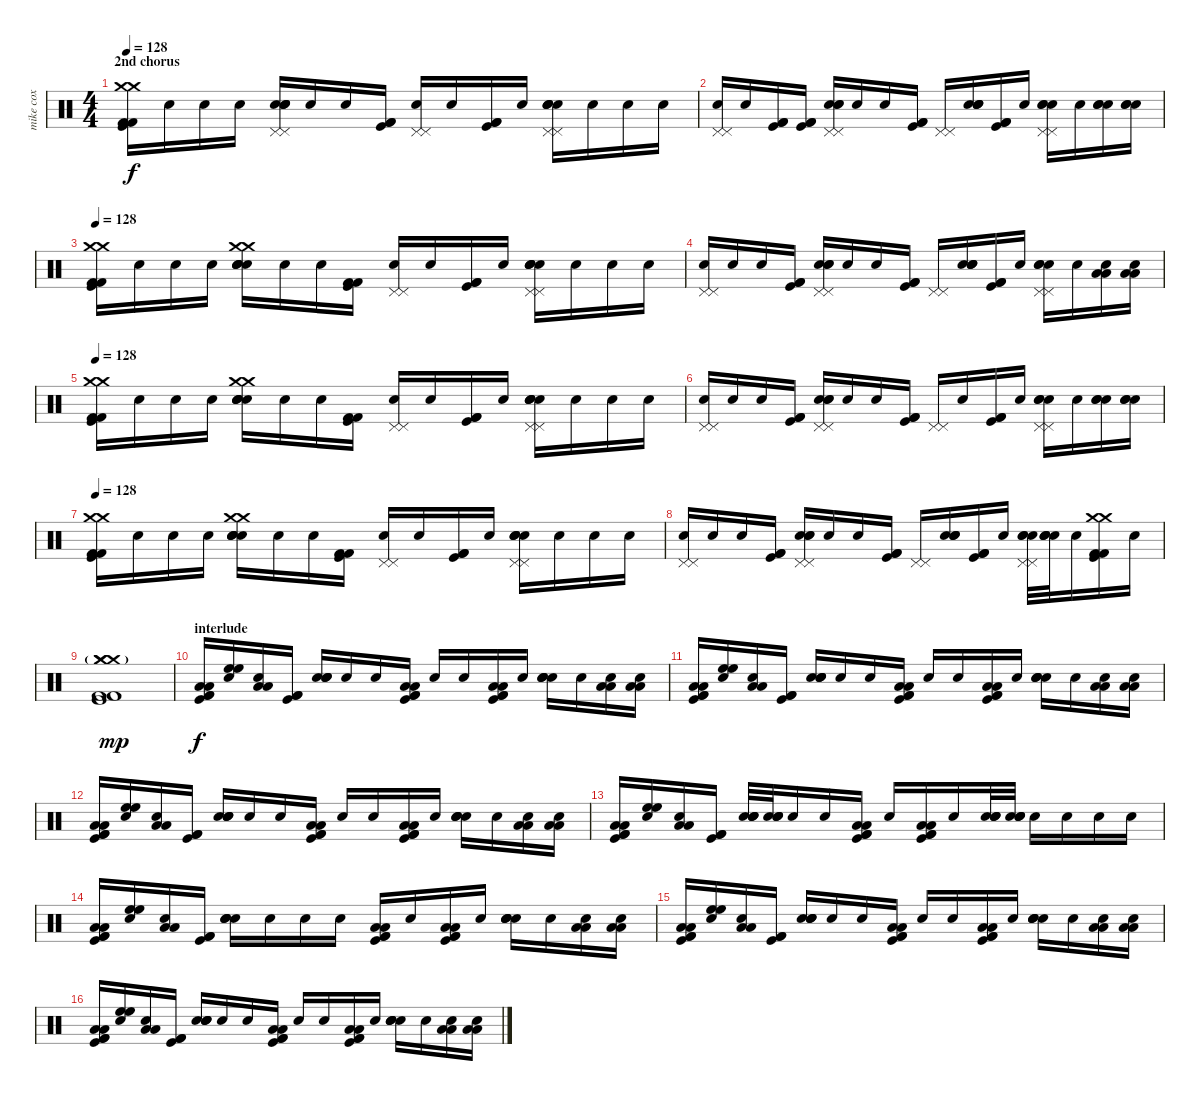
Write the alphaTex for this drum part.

\track ("mike cox" "mike cox") {instrument percussion}
\staff {score}
\articulation defaults
\ts (4 4)
\section ("" "2nd chorus")
\tempo 129
\tempo 128
\clef neutral
\ks c
("Crash medium (hit)" "Crash medium (hit)" "Kick (hit)" "Kick (hit) 2" "Kick (hit) 2").16{dy f} "Snare (hit)".16 "Snare (hit)".16 "Snare (hit)".16 ("Pedal Hi-Hat (hit)" "Pedal Hi-Hat (hit)" "Electric Snare (hit)" "Electric Snare (hit)" "Snare (hit) 2" "Snare (hit)").16 "Snare (hit)".16 "Snare (hit)".16 ("Kick (hit)" "Kick (hit) 2" "Kick (hit) 2").16 ("Pedal Hi-Hat (hit)" "Pedal Hi-Hat (hit)" "Snare (hit)").16 "Snare (hit)".16 ("Kick (hit)" "Kick (hit) 2" "Kick (hit) 2").16 "Snare (hit)".16 ("Pedal Hi-Hat (hit)" "Pedal Hi-Hat (hit)" "Electric Snare (hit)" "Electric Snare (hit)" "Snare (hit) 2" "Snare (hit)").16 "Snare (hit)".16 "Snare (hit)".16 "Snare (hit)".16 |
("Pedal Hi-Hat (hit)" "Pedal Hi-Hat (hit)" "Snare (hit)").16 "Snare (hit)".16 ("Kick (hit)" "Kick (hit) 2" "Kick (hit) 2").16 ("Kick (hit)" "Kick (hit) 2" "Kick (hit) 2").16 ("Pedal Hi-Hat (hit)" "Pedal Hi-Hat (hit)" "Electric Snare (hit)" "Electric Snare (hit)" "Snare (hit) 2").16 "Snare (hit)".16 "Snare (hit)".16 ("Kick (hit)" "Kick (hit) 2" "Kick (hit) 2").16 ("Pedal Hi-Hat (hit)" "Pedal Hi-Hat (hit)").16 ("Electric Snare (hit)" "Electric Snare (hit)" "Snare (hit) 2" "Snare (hit)").16 ("Kick (hit)" "Kick (hit) 2" "Kick (hit) 2").16 "Snare (hit)".16 ("Pedal Hi-Hat (hit)" "Pedal Hi-Hat (hit)" "Electric Snare (hit)" "Electric Snare (hit)" "Snare (hit) 2").16 "Snare (hit)".16 ("Electric Snare (hit)" "Electric Snare (hit)" "Snare (hit) 2").16 ("Electric Snare (hit)" "Electric Snare (hit)" "Snare (hit) 2").16 |
\tempo 128
("Crash medium (hit)" "Crash medium (hit)" "Kick (hit)" "Kick (hit) 2" "Kick (hit) 2").16 "Snare (hit)".16 "Snare (hit)".16 "Snare (hit)".16 ("Crash medium (hit)" "Crash medium (hit)" "Electric Snare (hit)" "Electric Snare (hit)" "Snare (hit) 2" "Snare (hit)").16 "Snare (hit)".16 "Snare (hit)".16 ("Kick (hit)" "Kick (hit) 2" "Kick (hit) 2").16 ("Pedal Hi-Hat (hit)" "Pedal Hi-Hat (hit)" "Snare (hit)").16 "Snare (hit)".16 ("Kick (hit)" "Kick (hit) 2" "Kick (hit) 2").16 "Snare (hit)".16 ("Pedal Hi-Hat (hit)" "Pedal Hi-Hat (hit)" "Electric Snare (hit)" "Electric Snare (hit)" "Snare (hit) 2" "Snare (hit)").16 "Snare (hit)".16 "Snare (hit)".16 "Snare (hit)".16 |
("Pedal Hi-Hat (hit)" "Pedal Hi-Hat (hit)" "Snare (hit)").16 "Snare (hit)".16 "Snare (hit)".16 ("Kick (hit)" "Kick (hit) 2" "Kick (hit) 2").16 ("Pedal Hi-Hat (hit)" "Pedal Hi-Hat (hit)" "Electric Snare (hit)" "Electric Snare (hit)" "Snare (hit) 2").16 "Snare (hit)".16 "Snare (hit)".16 ("Kick (hit)" "Kick (hit) 2" "Kick (hit) 2").16 ("Pedal Hi-Hat (hit)" "Pedal Hi-Hat (hit)").16 ("Electric Snare (hit)" "Electric Snare (hit)" "Snare (hit) 2" "Snare (hit)").16 ("Kick (hit)" "Kick (hit) 2" "Kick (hit) 2").16 "Snare (hit)".16 ("Pedal Hi-Hat (hit)" "Pedal Hi-Hat (hit)" "Electric Snare (hit)" "Electric Snare (hit)" "Snare (hit) 2").16 "Snare (hit)".16 ("Low Tom (hit)" "Low Tom (hit)" "Snare (hit)").16 ("Low Tom (hit)" "Low Tom (hit)" "Snare (hit)").16 |
\tempo 128
("Crash medium (hit)" "Crash medium (hit)" "Kick (hit)" "Kick (hit) 2" "Kick (hit) 2").16 "Snare (hit)".16 "Snare (hit)".16 "Snare (hit)".16 ("Crash medium (hit)" "Crash medium (hit)" "Electric Snare (hit)" "Electric Snare (hit)" "Snare (hit) 2" "Snare (hit)").16 "Snare (hit)".16 "Snare (hit)".16 ("Kick (hit)" "Kick (hit) 2" "Kick (hit) 2").16 ("Pedal Hi-Hat (hit)" "Pedal Hi-Hat (hit)" "Snare (hit)").16 "Snare (hit)".16 ("Kick (hit)" "Kick (hit) 2" "Kick (hit) 2").16 "Snare (hit)".16 ("Pedal Hi-Hat (hit)" "Pedal Hi-Hat (hit)" "Electric Snare (hit)" "Electric Snare (hit)" "Snare (hit) 2" "Snare (hit)").16 "Snare (hit)".16 "Snare (hit)".16 "Snare (hit)".16 |
("Pedal Hi-Hat (hit)" "Pedal Hi-Hat (hit)" "Snare (hit)").16 "Snare (hit)".16 "Snare (hit)".16 ("Kick (hit)" "Kick (hit) 2" "Kick (hit) 2").16 ("Pedal Hi-Hat (hit)" "Pedal Hi-Hat (hit)" "Electric Snare (hit)" "Electric Snare (hit)" "Snare (hit) 2").16 "Snare (hit)".16 "Snare (hit)".16 ("Kick (hit)" "Kick (hit) 2" "Kick (hit) 2").16 ("Pedal Hi-Hat (hit)" "Pedal Hi-Hat (hit)").16 "Snare (hit)".16 ("Kick (hit)" "Kick (hit) 2" "Kick (hit) 2").16 "Snare (hit)".16 ("Pedal Hi-Hat (hit)" "Pedal Hi-Hat (hit)" "Electric Snare (hit)" "Electric Snare (hit)" "Snare (hit) 2").16 "Snare (hit)".16 ("Electric Snare (hit)" "Electric Snare (hit)" "Snare (hit) 2").16 ("Electric Snare (hit)" "Electric Snare (hit)" "Snare (hit) 2").16 |
\tempo 128
("Crash medium (hit)" "Crash medium (hit)" "Kick (hit)" "Kick (hit) 2" "Kick (hit) 2").16 "Snare (hit)".16 "Snare (hit)".16 "Snare (hit)".16 ("Crash medium (hit)" "Crash medium (hit)" "Electric Snare (hit)" "Electric Snare (hit)" "Snare (hit) 2" "Snare (hit)").16 "Snare (hit)".16 "Snare (hit)".16 ("Kick (hit)" "Kick (hit) 2" "Kick (hit) 2").16 ("Pedal Hi-Hat (hit)" "Pedal Hi-Hat (hit)" "Snare (hit)").16 "Snare (hit)".16 ("Kick (hit)" "Kick (hit) 2" "Kick (hit) 2").16 "Snare (hit)".16 ("Pedal Hi-Hat (hit)" "Pedal Hi-Hat (hit)" "Electric Snare (hit)" "Electric Snare (hit)" "Snare (hit) 2" "Snare (hit)").16 "Snare (hit)".16 "Snare (hit)".16 "Snare (hit)".16 |
("Pedal Hi-Hat (hit)" "Pedal Hi-Hat (hit)" "Snare (hit)").16 "Snare (hit)".16 "Snare (hit)".16 ("Kick (hit)" "Kick (hit) 2" "Kick (hit) 2").16 ("Pedal Hi-Hat (hit)" "Pedal Hi-Hat (hit)" "Electric Snare (hit)" "Electric Snare (hit)" "Snare (hit) 2").16 "Snare (hit)".16 "Snare (hit)".16 ("Kick (hit)" "Kick (hit) 2" "Kick (hit) 2").16 ("Pedal Hi-Hat (hit)" "Pedal Hi-Hat (hit)").16 ("Electric Snare (hit)" "Electric Snare (hit)" "Snare (hit) 2" "Snare (hit)").16 ("Kick (hit)" "Kick (hit) 2" "Kick (hit) 2").16 "Snare (hit)".16 ("Pedal Hi-Hat (hit)" "Pedal Hi-Hat (hit)" "Electric Snare (hit)" "Electric Snare (hit)" "Snare (hit) 2").32 ("Electric Snare (hit)" "Electric Snare (hit)" "Snare (hit) 2" "Snare (hit)").32 "Snare (hit)".16 ("Crash medium (hit)" "Crash medium (hit)" "Kick (hit)" "Kick (hit) 2" "Kick (hit) 2").16 "Snare (hit)".16 |
("Crash medium (hit)" "Crash medium (hit)" "Crash medium (hit)"{g} "Kick (hit)" "Kick (hit) 2" "Kick (hit) 2").1{dy mp} |
\section ("" "interlude")
("Low Floor Tom (hit)" "Low Floor Tom (hit)" "Kick (hit)" "Kick (hit) 2" "Kick (hit) 2").16{dy f} ("High Floor Tom (hit)" "High Floor Tom (hit)" "Snare (hit)").16 ("Low Floor Tom (hit)" "Low Floor Tom (hit)" "Snare (hit)").16 ("Kick (hit)" "Kick (hit) 2" "Kick (hit) 2").16 ("Snare (hit) 2" "Electric Snare (hit)" "Electric Snare (hit)" "Snare (hit)").16 "Snare (hit)".16 "Snare (hit)".16 ("Low Floor Tom (hit)" "Low Floor Tom (hit)" "Kick (hit)" "Kick (hit) 2" "Kick (hit) 2").16 "Snare (hit)".16 "Snare (hit)".16 ("Low Floor Tom (hit)" "Low Floor Tom (hit)" "Kick (hit)" "Kick (hit) 2" "Kick (hit) 2").16 "Snare (hit)".16 ("Electric Snare (hit)" "Electric Snare (hit)" "Snare (hit) 2" "Snare (hit)").16 "Snare (hit)".16 ("Low Floor Tom (hit)" "Low Floor Tom (hit)" "Snare (hit)").16 ("Low Floor Tom (hit)" "Low Floor Tom (hit)" "Snare (hit)").16 |
("Low Floor Tom (hit)" "Low Floor Tom (hit)" "Kick (hit)" "Kick (hit) 2" "Kick (hit) 2").16 ("High Floor Tom (hit)" "High Floor Tom (hit)" "Snare (hit)").16 ("Low Floor Tom (hit)" "Low Floor Tom (hit)" "Snare (hit)").16 ("Kick (hit)" "Kick (hit) 2" "Kick (hit) 2").16 ("Snare (hit) 2" "Electric Snare (hit)" "Electric Snare (hit)" "Snare (hit)").16 "Snare (hit)".16 "Snare (hit)".16 ("Low Floor Tom (hit)" "Low Floor Tom (hit)" "Kick (hit)" "Kick (hit) 2" "Kick (hit) 2").16 "Snare (hit)".16 "Snare (hit)".16 ("Low Floor Tom (hit)" "Low Floor Tom (hit)" "Kick (hit)" "Kick (hit) 2" "Kick (hit) 2").16 "Snare (hit)".16 ("Electric Snare (hit)" "Electric Snare (hit)" "Snare (hit) 2" "Snare (hit)").16 "Snare (hit)".16 ("Low Floor Tom (hit)" "Low Floor Tom (hit)" "Snare (hit)").16 ("Low Floor Tom (hit)" "Low Floor Tom (hit)" "Snare (hit)").16 |
("Low Floor Tom (hit)" "Low Floor Tom (hit)" "Kick (hit)" "Kick (hit) 2" "Kick (hit) 2").16 ("High Floor Tom (hit)" "High Floor Tom (hit)" "Snare (hit)").16 ("Low Floor Tom (hit)" "Low Floor Tom (hit)" "Snare (hit)").16 ("Kick (hit)" "Kick (hit) 2" "Kick (hit) 2").16 ("Snare (hit) 2" "Electric Snare (hit)" "Electric Snare (hit)" "Snare (hit)").16 "Snare (hit)".16 "Snare (hit)".16 ("Low Floor Tom (hit)" "Low Floor Tom (hit)" "Kick (hit)" "Kick (hit) 2" "Kick (hit) 2").16 "Snare (hit)".16 "Snare (hit)".16 ("Low Floor Tom (hit)" "Low Floor Tom (hit)" "Kick (hit)" "Kick (hit) 2" "Kick (hit) 2").16 "Snare (hit)".16 ("Electric Snare (hit)" "Electric Snare (hit)" "Snare (hit) 2" "Snare (hit)").16 "Snare (hit)".16 ("Low Floor Tom (hit)" "Low Floor Tom (hit)" "Snare (hit)").16 ("Low Floor Tom (hit)" "Low Floor Tom (hit)" "Snare (hit)").16 |
("Low Floor Tom (hit)" "Low Floor Tom (hit)" "Kick (hit)" "Kick (hit) 2" "Kick (hit) 2").16 ("High Floor Tom (hit)" "High Floor Tom (hit)" "Snare (hit)").16 ("Low Floor Tom (hit)" "Low Floor Tom (hit)" "Snare (hit)").16 ("Kick (hit)" "Kick (hit) 2" "Kick (hit) 2").16 ("Snare (hit) 2" "Electric Snare (hit)" "Electric Snare (hit)" "Snare (hit)").32 ("Snare (hit) 2" "Electric Snare (hit)" "Electric Snare (hit)" "Snare (hit)").32 "Snare (hit)".16 "Snare (hit)".16 ("Low Floor Tom (hit)" "Low Floor Tom (hit)" "Kick (hit)" "Kick (hit) 2" "Kick (hit) 2").16 "Snare (hit)".16 ("Low Floor Tom (hit)" "Low Floor Tom (hit)" "Kick (hit)" "Kick (hit) 2" "Kick (hit) 2").16 "Snare (hit)".16 ("Electric Snare (hit)" "Electric Snare (hit)" "Snare (hit) 2" "Snare (hit)").32 ("Electric Snare (hit)" "Electric Snare (hit)" "Snare (hit) 2" "Snare (hit)").32 "Snare (hit)".16 "Snare (hit)".16 "Snare (hit)".16 "Snare (hit)".16 |
("Low Floor Tom (hit)" "Low Floor Tom (hit)" "Kick (hit)" "Kick (hit) 2" "Kick (hit) 2").16 ("High Floor Tom (hit)" "High Floor Tom (hit)" "Snare (hit)").16 ("Low Floor Tom (hit)" "Low Floor Tom (hit)" "Snare (hit)").16 ("Kick (hit)" "Kick (hit) 2" "Kick (hit) 2").16 ("Snare (hit) 2" "Electric Snare (hit)" "Electric Snare (hit)" "Snare (hit)").16 "Snare (hit)".16 "Snare (hit)".16 "Snare (hit)".16 ("Low Floor Tom (hit)" "Low Floor Tom (hit)" "Kick (hit)" "Kick (hit) 2" "Kick (hit) 2").16 "Snare (hit)".16 ("Low Floor Tom (hit)" "Low Floor Tom (hit)" "Kick (hit)" "Kick (hit) 2" "Kick (hit) 2").16 "Snare (hit)".16 ("Electric Snare (hit)" "Electric Snare (hit)" "Snare (hit) 2" "Snare (hit)").16 "Snare (hit)".16 ("Low Floor Tom (hit)" "Low Floor Tom (hit)" "Snare (hit)").16 ("Low Floor Tom (hit)" "Low Floor Tom (hit)" "Snare (hit)").16 |
("Low Floor Tom (hit)" "Low Floor Tom (hit)" "Kick (hit)" "Kick (hit) 2" "Kick (hit) 2").16 ("High Floor Tom (hit)" "High Floor Tom (hit)" "Snare (hit)").16 ("Low Floor Tom (hit)" "Low Floor Tom (hit)" "Snare (hit)").16 ("Kick (hit)" "Kick (hit) 2" "Kick (hit) 2").16 ("Snare (hit) 2" "Electric Snare (hit)" "Electric Snare (hit)" "Snare (hit)").16 "Snare (hit)".16 "Snare (hit)".16 ("Low Floor Tom (hit)" "Low Floor Tom (hit)" "Kick (hit)" "Kick (hit) 2" "Kick (hit) 2").16 "Snare (hit)".16 "Snare (hit)".16 ("Low Floor Tom (hit)" "Low Floor Tom (hit)" "Kick (hit)" "Kick (hit) 2" "Kick (hit) 2").16 "Snare (hit)".16 ("Electric Snare (hit)" "Electric Snare (hit)" "Snare (hit) 2" "Snare (hit)").16 "Snare (hit)".16 ("Low Floor Tom (hit)" "Low Floor Tom (hit)" "Snare (hit)").16 ("Low Floor Tom (hit)" "Low Floor Tom (hit)" "Snare (hit)").16 |
("Low Floor Tom (hit)" "Low Floor Tom (hit)" "Kick (hit)" "Kick (hit) 2" "Kick (hit) 2").16 ("High Floor Tom (hit)" "High Floor Tom (hit)" "Snare (hit)").16 ("Low Floor Tom (hit)" "Low Floor Tom (hit)" "Snare (hit)").16 ("Kick (hit)" "Kick (hit) 2" "Kick (hit) 2").16 ("Snare (hit) 2" "Electric Snare (hit)" "Electric Snare (hit)" "Snare (hit)").16 "Snare (hit)".16 "Snare (hit)".16 ("Low Floor Tom (hit)" "Low Floor Tom (hit)" "Kick (hit)" "Kick (hit) 2" "Kick (hit) 2").16 "Snare (hit)".16 "Snare (hit)".16 ("Low Floor Tom (hit)" "Low Floor Tom (hit)" "Kick (hit)" "Kick (hit) 2" "Kick (hit) 2").16 "Snare (hit)".16 ("Electric Snare (hit)" "Electric Snare (hit)" "Snare (hit) 2" "Snare (hit)").16 "Snare (hit)".16 ("Low Floor Tom (hit)" "Low Floor Tom (hit)" "Snare (hit)").16 ("Low Floor Tom (hit)" "Low Floor Tom (hit)" "Snare (hit)").16
